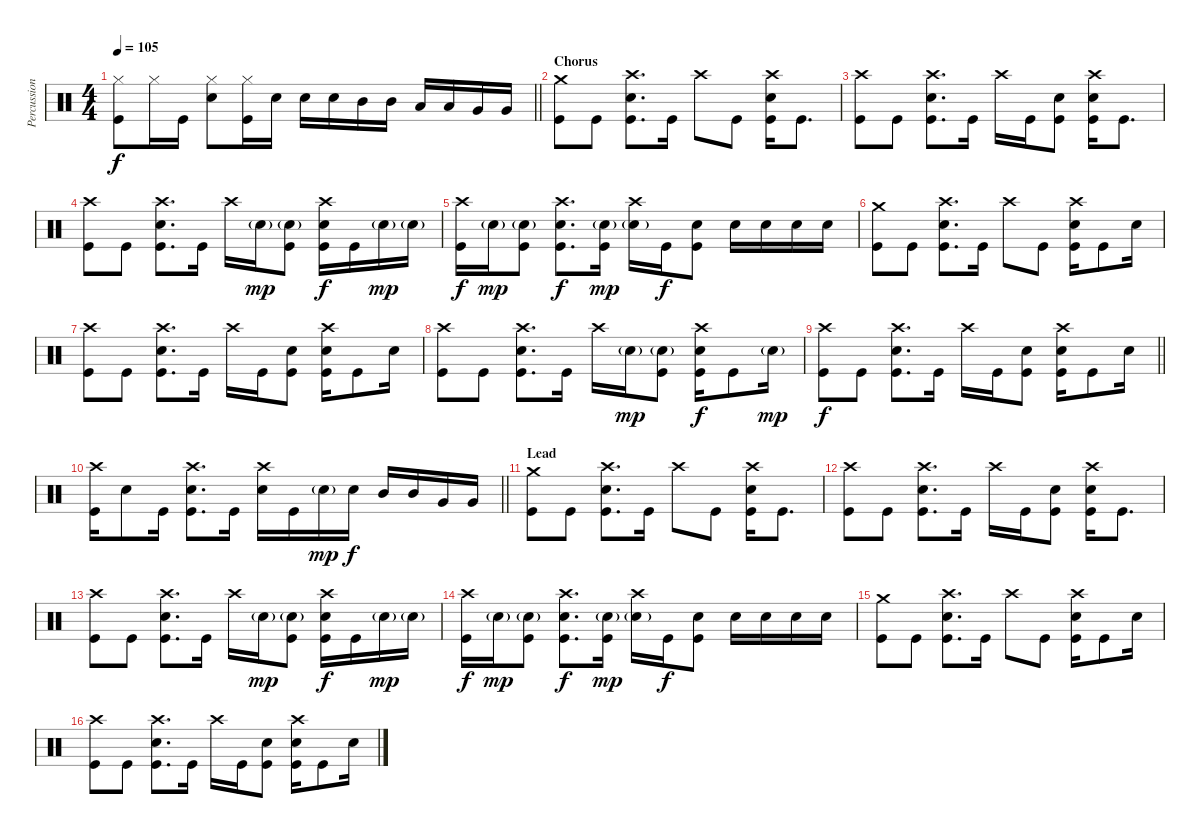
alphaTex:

\track ("Percussion" "Percussion") {instrument percussion}
\staff {score}
\articulation defaults
\ts (4 4)
\tempo 105
\clef neutral
\barLineRight lightlight
\ks c
("Hi-Hat (closed)" "Kick (hit)").8{dy f} "Hi-Hat (closed)".16 "Kick (hit)".16 ("Hi-Hat (closed)" "Electric Snare (hit)").8 ("Hi-Hat (closed)" "Kick (hit)").16 "Electric Snare (hit)".16 "Electric Snare (hit)".16 "Electric Snare (hit)".16 "Mid Tom (hit)".16 "Mid Tom (hit)".16 "Low Tom (hit)".16 "Low Tom (hit)".16 "Very Low Tom (hit)".16 "Very Low Tom (hit)".16 |
\section ("" "Chorus")
("Crash medium (hit)" "Kick (hit)").8 "Kick (hit)".8 ("Crash high (hit)" "Electric Snare (hit)" "Kick (hit)").8{d} "Kick (hit)".16 "Crash high (hit)".8 "Kick (hit)".8 ("Crash high (hit)" "Electric Snare (hit)" "Kick (hit)").16 "Kick (hit)".8{d} |
("Crash high (hit)" "Kick (hit)").8 "Kick (hit)".8 ("Crash high (hit)" "Electric Snare (hit)" "Kick (hit)").8{d} "Kick (hit)".16 "Crash high (hit)".16 "Kick (hit)".16 ("Electric Snare (hit)" "Kick (hit)").8 ("Crash high (hit)" "Electric Snare (hit)" "Kick (hit)").16 "Kick (hit)".8{d} |
("Crash high (hit)" "Kick (hit)").8 "Kick (hit)".8 ("Crash high (hit)" "Electric Snare (hit)" "Kick (hit)").8{d} "Kick (hit)".16 "Crash high (hit)".16 "Electric Snare (hit)"{g}.16{dy mp} ("Electric Snare (hit)"{g} "Kick (hit)").8 ("Crash high (hit)" "Electric Snare (hit)" "Kick (hit)").16{dy f} "Kick (hit)".16 "Electric Snare (hit)"{g}.16{dy mp} "Electric Snare (hit)"{g}.16 |
("Crash high (hit)" "Kick (hit)").16{dy f} "Electric Snare (hit)"{g}.16{dy mp} ("Electric Snare (hit)"{g} "Kick (hit)").8 ("Crash high (hit)" "Electric Snare (hit)" "Kick (hit)").8{d dy f} ("Electric Snare (hit)"{g} "Kick (hit)").16{dy mp} ("Crash high (hit)" "Electric Snare (hit)"{g}).16 "Kick (hit)".16{dy f} ("Electric Snare (hit)" "Kick (hit)").8 "Electric Snare (hit)".16 "Electric Snare (hit)".16 "Electric Snare (hit)".16 "Electric Snare (hit)".16 |
("Crash medium (hit)" "Kick (hit)").8 "Kick (hit)".8 ("Crash high (hit)" "Electric Snare (hit)" "Kick (hit)").8{d} "Kick (hit)".16 "Crash high (hit)".8 "Kick (hit)".8 ("Crash high (hit)" "Electric Snare (hit)" "Kick (hit)").16 "Kick (hit)".8 "Electric Snare (hit)".16 |
("Crash high (hit)" "Kick (hit)").8 "Kick (hit)".8 ("Crash high (hit)" "Electric Snare (hit)" "Kick (hit)").8{d} "Kick (hit)".16 "Crash high (hit)".16 "Kick (hit)".16 ("Electric Snare (hit)" "Kick (hit)").8 ("Crash high (hit)" "Electric Snare (hit)" "Kick (hit)").16 "Kick (hit)".8 "Electric Snare (hit)".16 |
("Crash high (hit)" "Kick (hit)").8 "Kick (hit)".8 ("Crash high (hit)" "Electric Snare (hit)" "Kick (hit)").8{d} "Kick (hit)".16 "Crash high (hit)".16 "Electric Snare (hit)"{g}.16{dy mp} ("Electric Snare (hit)"{g} "Kick (hit)").8 ("Crash high (hit)" "Electric Snare (hit)" "Kick (hit)").16{dy f} "Kick (hit)".8 "Electric Snare (hit)"{g}.16{dy mp} |
\barLineRight lightlight
("Crash high (hit)" "Kick (hit)").8{dy f} "Kick (hit)".8 ("Crash high (hit)" "Electric Snare (hit)" "Kick (hit)").8{d} "Kick (hit)".16 "Crash high (hit)".16 "Kick (hit)".16 ("Electric Snare (hit)" "Kick (hit)").8 ("Crash high (hit)" "Electric Snare (hit)" "Kick (hit)").16 "Kick (hit)".8 "Electric Snare (hit)".16 |
\barLineRight lightlight
("Crash high (hit)" "Kick (hit)").16 "Electric Snare (hit)".8 "Kick (hit)".16 ("Crash high (hit)" "Electric Snare (hit)" "Kick (hit)").8{d} "Kick (hit)".16 ("Crash high (hit)" "Electric Snare (hit)").16 "Kick (hit)".16 "Electric Snare (hit)"{g}.16{dy mp} "Electric Snare (hit)".16{dy f} "Mid Tom (hit)".16 "Mid Tom (hit)".16 "Very Low Tom (hit)".16 "Very Low Tom (hit)".16 |
\section ("" "Lead")
("Crash medium (hit)" "Kick (hit)").8 "Kick (hit)".8 ("Crash high (hit)" "Electric Snare (hit)" "Kick (hit)").8{d} "Kick (hit)".16 "Crash high (hit)".8 "Kick (hit)".8 ("Crash high (hit)" "Electric Snare (hit)" "Kick (hit)").16 "Kick (hit)".8{d} |
("Crash high (hit)" "Kick (hit)").8 "Kick (hit)".8 ("Crash high (hit)" "Electric Snare (hit)" "Kick (hit)").8{d} "Kick (hit)".16 "Crash high (hit)".16 "Kick (hit)".16 ("Electric Snare (hit)" "Kick (hit)").8 ("Crash high (hit)" "Electric Snare (hit)" "Kick (hit)").16 "Kick (hit)".8{d} |
("Crash high (hit)" "Kick (hit)").8 "Kick (hit)".8 ("Crash high (hit)" "Electric Snare (hit)" "Kick (hit)").8{d} "Kick (hit)".16 "Crash high (hit)".16 "Electric Snare (hit)"{g}.16{dy mp} ("Electric Snare (hit)"{g} "Kick (hit)").8 ("Crash high (hit)" "Electric Snare (hit)" "Kick (hit)").16{dy f} "Kick (hit)".16 "Electric Snare (hit)"{g}.16{dy mp} "Electric Snare (hit)"{g}.16 |
("Crash high (hit)" "Kick (hit)").16{dy f} "Electric Snare (hit)"{g}.16{dy mp} ("Electric Snare (hit)"{g} "Kick (hit)").8 ("Crash high (hit)" "Electric Snare (hit)" "Kick (hit)").8{d dy f} ("Electric Snare (hit)"{g} "Kick (hit)").16{dy mp} ("Crash high (hit)" "Electric Snare (hit)"{g}).16 "Kick (hit)".16{dy f} ("Electric Snare (hit)" "Kick (hit)").8 "Electric Snare (hit)".16 "Electric Snare (hit)".16 "Electric Snare (hit)".16 "Electric Snare (hit)".16 |
("Crash medium (hit)" "Kick (hit)").8 "Kick (hit)".8 ("Crash high (hit)" "Electric Snare (hit)" "Kick (hit)").8{d} "Kick (hit)".16 "Crash high (hit)".8 "Kick (hit)".8 ("Crash high (hit)" "Electric Snare (hit)" "Kick (hit)").16 "Kick (hit)".8 "Electric Snare (hit)".16 |
("Crash high (hit)" "Kick (hit)").8 "Kick (hit)".8 ("Crash high (hit)" "Electric Snare (hit)" "Kick (hit)").8{d} "Kick (hit)".16 "Crash high (hit)".16 "Kick (hit)".16 ("Electric Snare (hit)" "Kick (hit)").8 ("Crash high (hit)" "Electric Snare (hit)" "Kick (hit)").16 "Kick (hit)".8 "Electric Snare (hit)".16
